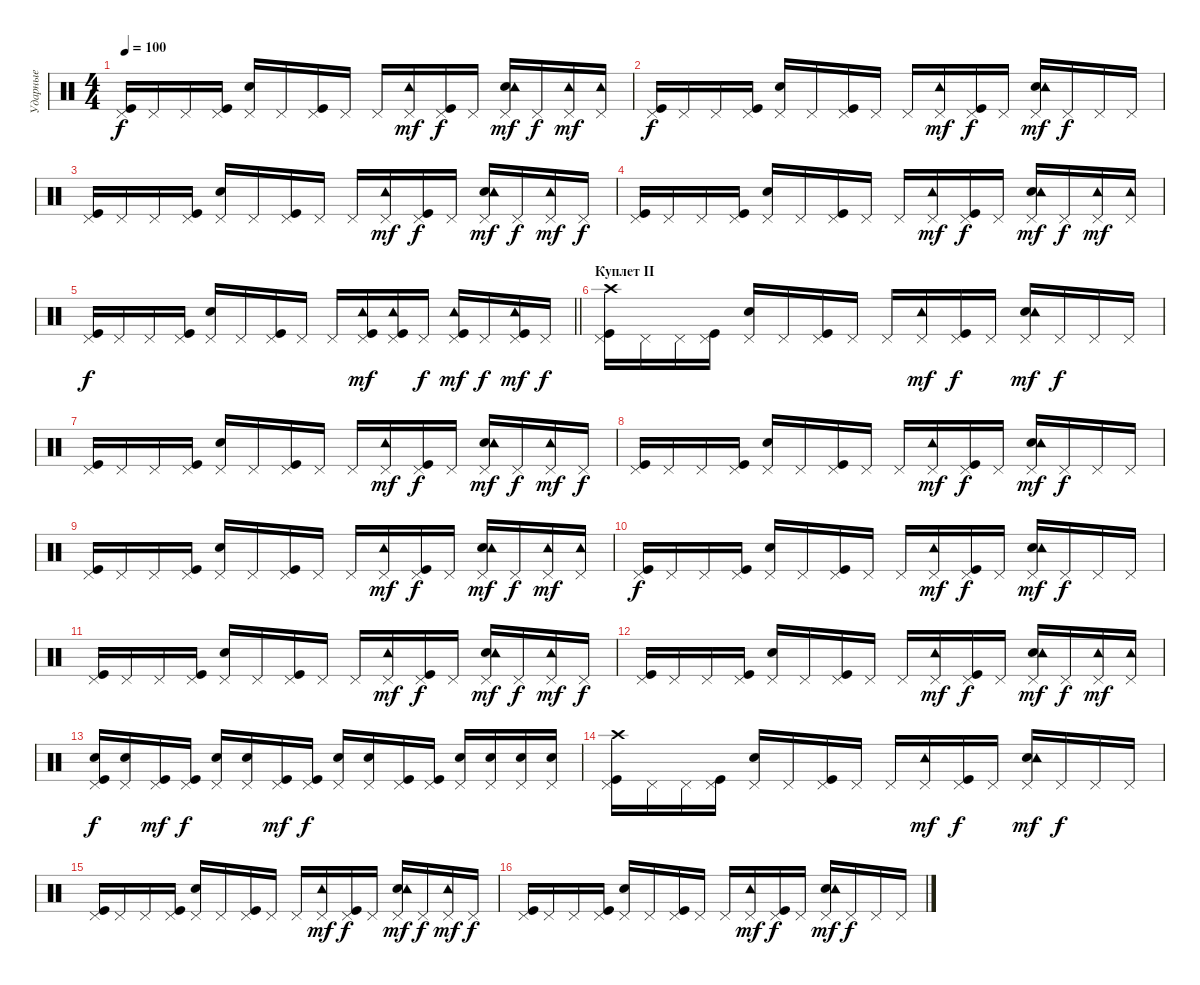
\track ("Ударные" "Ударные") {instrument percussion}
\staff {score}
\articulation defaults
\ts (4 4)
\tempo 100
\clef neutral
\ks c
("Kick (hit)" "Pedal Hi-Hat (hit)").16{dy f} "Pedal Hi-Hat (hit)".16 "Pedal Hi-Hat (hit)".16 ("Kick (hit)" "Pedal Hi-Hat (hit)").16 ("Pedal Hi-Hat (hit)" "Electric Snare (hit)").16 "Pedal Hi-Hat (hit)".16 ("Kick (hit)" "Pedal Hi-Hat (hit)").16 "Pedal Hi-Hat (hit)".16 "Pedal Hi-Hat (hit)".16 ("Pedal Hi-Hat (hit)" "Tambourine (hit)").16{dy mf} ("Kick (hit)" "Pedal Hi-Hat (hit)").16{dy f} "Pedal Hi-Hat (hit)".16 ("Pedal Hi-Hat (hit)" "Electric Snare (hit)" "Tambourine (hit)").16{dy mf} "Pedal Hi-Hat (hit)".16{dy f} ("Pedal Hi-Hat (hit)" "Tambourine (hit)").16{dy mf} ("Pedal Hi-Hat (hit)" "Tambourine (hit)").16 |
("Kick (hit)" "Pedal Hi-Hat (hit)").16{dy f} "Pedal Hi-Hat (hit)".16 "Pedal Hi-Hat (hit)".16 ("Kick (hit)" "Pedal Hi-Hat (hit)").16 ("Pedal Hi-Hat (hit)" "Electric Snare (hit)").16 "Pedal Hi-Hat (hit)".16 ("Kick (hit)" "Pedal Hi-Hat (hit)").16 "Pedal Hi-Hat (hit)".16 "Pedal Hi-Hat (hit)".16 ("Pedal Hi-Hat (hit)" "Tambourine (hit)").16{dy mf} ("Kick (hit)" "Pedal Hi-Hat (hit)").16{dy f} "Pedal Hi-Hat (hit)".16 ("Pedal Hi-Hat (hit)" "Electric Snare (hit)" "Tambourine (hit)").16{dy mf} "Pedal Hi-Hat (hit)".16{dy f} "Pedal Hi-Hat (hit)".16 "Pedal Hi-Hat (hit)".16 |
("Kick (hit)" "Pedal Hi-Hat (hit)").16 "Pedal Hi-Hat (hit)".16 "Pedal Hi-Hat (hit)".16 ("Kick (hit)" "Pedal Hi-Hat (hit)").16 ("Pedal Hi-Hat (hit)" "Electric Snare (hit)").16 "Pedal Hi-Hat (hit)".16 ("Kick (hit)" "Pedal Hi-Hat (hit)").16 "Pedal Hi-Hat (hit)".16 "Pedal Hi-Hat (hit)".16 ("Pedal Hi-Hat (hit)" "Tambourine (hit)").16{dy mf} ("Kick (hit)" "Pedal Hi-Hat (hit)").16{dy f} "Pedal Hi-Hat (hit)".16 ("Pedal Hi-Hat (hit)" "Electric Snare (hit)" "Tambourine (hit)").16{dy mf} "Pedal Hi-Hat (hit)".16{dy f} ("Pedal Hi-Hat (hit)" "Tambourine (hit)").16{dy mf} "Pedal Hi-Hat (hit)".16{dy f} |
("Kick (hit)" "Pedal Hi-Hat (hit)").16 "Pedal Hi-Hat (hit)".16 "Pedal Hi-Hat (hit)".16 ("Kick (hit)" "Pedal Hi-Hat (hit)").16 ("Pedal Hi-Hat (hit)" "Electric Snare (hit)").16 "Pedal Hi-Hat (hit)".16 ("Kick (hit)" "Pedal Hi-Hat (hit)").16 "Pedal Hi-Hat (hit)".16 "Pedal Hi-Hat (hit)".16 ("Pedal Hi-Hat (hit)" "Tambourine (hit)").16{dy mf} ("Kick (hit)" "Pedal Hi-Hat (hit)").16{dy f} "Pedal Hi-Hat (hit)".16 ("Pedal Hi-Hat (hit)" "Electric Snare (hit)" "Tambourine (hit)").16{dy mf} "Pedal Hi-Hat (hit)".16{dy f} ("Pedal Hi-Hat (hit)" "Tambourine (hit)").16{dy mf} ("Pedal Hi-Hat (hit)" "Tambourine (hit)").16 |
\barLineRight lightlight
("Kick (hit)" "Pedal Hi-Hat (hit)").16{dy f} "Pedal Hi-Hat (hit)".16 "Pedal Hi-Hat (hit)".16 ("Kick (hit)" "Pedal Hi-Hat (hit)").16 ("Pedal Hi-Hat (hit)" "Electric Snare (hit)").16 "Pedal Hi-Hat (hit)".16 ("Kick (hit)" "Pedal Hi-Hat (hit)").16 "Pedal Hi-Hat (hit)".16 "Pedal Hi-Hat (hit)".16 ("Kick (hit)" "Pedal Hi-Hat (hit)" "Tambourine (hit)").16{dy mf} ("Kick (hit)" "Pedal Hi-Hat (hit)" "Tambourine (hit)").16 "Pedal Hi-Hat (hit)".16{dy f} ("Kick (hit)" "Pedal Hi-Hat (hit)" "Tambourine (hit)").16{dy mf} "Pedal Hi-Hat (hit)".16{dy f} ("Kick (hit)" "Pedal Hi-Hat (hit)" "Tambourine (hit)").16{dy mf} "Pedal Hi-Hat (hit)".16{dy f} |
\section ("" "Куплет II")
("Kick (hit)" "Pedal Hi-Hat (hit)" "Crash high (hit)").16 "Pedal Hi-Hat (hit)".16 "Pedal Hi-Hat (hit)".16 ("Kick (hit)" "Pedal Hi-Hat (hit)").16 ("Pedal Hi-Hat (hit)" "Electric Snare (hit)").16 "Pedal Hi-Hat (hit)".16 ("Kick (hit)" "Pedal Hi-Hat (hit)").16 "Pedal Hi-Hat (hit)".16 "Pedal Hi-Hat (hit)".16 ("Pedal Hi-Hat (hit)" "Tambourine (hit)").16{dy mf} ("Kick (hit)" "Pedal Hi-Hat (hit)").16{dy f} "Pedal Hi-Hat (hit)".16 ("Pedal Hi-Hat (hit)" "Electric Snare (hit)" "Tambourine (hit)").16{dy mf} "Pedal Hi-Hat (hit)".16{dy f} "Pedal Hi-Hat (hit)".16 "Pedal Hi-Hat (hit)".16 |
("Kick (hit)" "Pedal Hi-Hat (hit)").16 "Pedal Hi-Hat (hit)".16 "Pedal Hi-Hat (hit)".16 ("Kick (hit)" "Pedal Hi-Hat (hit)").16 ("Pedal Hi-Hat (hit)" "Electric Snare (hit)").16 "Pedal Hi-Hat (hit)".16 ("Kick (hit)" "Pedal Hi-Hat (hit)").16 "Pedal Hi-Hat (hit)".16 "Pedal Hi-Hat (hit)".16 ("Pedal Hi-Hat (hit)" "Tambourine (hit)").16{dy mf} ("Kick (hit)" "Pedal Hi-Hat (hit)").16{dy f} "Pedal Hi-Hat (hit)".16 ("Pedal Hi-Hat (hit)" "Electric Snare (hit)" "Tambourine (hit)").16{dy mf} "Pedal Hi-Hat (hit)".16{dy f} ("Pedal Hi-Hat (hit)" "Tambourine (hit)").16{dy mf} "Pedal Hi-Hat (hit)".16{dy f} |
("Kick (hit)" "Pedal Hi-Hat (hit)").16 "Pedal Hi-Hat (hit)".16 "Pedal Hi-Hat (hit)".16 ("Kick (hit)" "Pedal Hi-Hat (hit)").16 ("Pedal Hi-Hat (hit)" "Electric Snare (hit)").16 "Pedal Hi-Hat (hit)".16 ("Kick (hit)" "Pedal Hi-Hat (hit)").16 "Pedal Hi-Hat (hit)".16 "Pedal Hi-Hat (hit)".16 ("Pedal Hi-Hat (hit)" "Tambourine (hit)").16{dy mf} ("Kick (hit)" "Pedal Hi-Hat (hit)").16{dy f} "Pedal Hi-Hat (hit)".16 ("Pedal Hi-Hat (hit)" "Electric Snare (hit)" "Tambourine (hit)").16{dy mf} "Pedal Hi-Hat (hit)".16{dy f} "Pedal Hi-Hat (hit)".16 "Pedal Hi-Hat (hit)".16 |
("Kick (hit)" "Pedal Hi-Hat (hit)").16 "Pedal Hi-Hat (hit)".16 "Pedal Hi-Hat (hit)".16 ("Kick (hit)" "Pedal Hi-Hat (hit)").16 ("Pedal Hi-Hat (hit)" "Electric Snare (hit)").16 "Pedal Hi-Hat (hit)".16 ("Kick (hit)" "Pedal Hi-Hat (hit)").16 "Pedal Hi-Hat (hit)".16 "Pedal Hi-Hat (hit)".16 ("Pedal Hi-Hat (hit)" "Tambourine (hit)").16{dy mf} ("Kick (hit)" "Pedal Hi-Hat (hit)").16{dy f} "Pedal Hi-Hat (hit)".16 ("Pedal Hi-Hat (hit)" "Electric Snare (hit)" "Tambourine (hit)").16{dy mf} "Pedal Hi-Hat (hit)".16{dy f} ("Pedal Hi-Hat (hit)" "Tambourine (hit)").16{dy mf} ("Pedal Hi-Hat (hit)" "Tambourine (hit)").16 |
("Kick (hit)" "Pedal Hi-Hat (hit)").16{dy f} "Pedal Hi-Hat (hit)".16 "Pedal Hi-Hat (hit)".16 ("Kick (hit)" "Pedal Hi-Hat (hit)").16 ("Pedal Hi-Hat (hit)" "Electric Snare (hit)").16 "Pedal Hi-Hat (hit)".16 ("Kick (hit)" "Pedal Hi-Hat (hit)").16 "Pedal Hi-Hat (hit)".16 "Pedal Hi-Hat (hit)".16 ("Pedal Hi-Hat (hit)" "Tambourine (hit)").16{dy mf} ("Kick (hit)" "Pedal Hi-Hat (hit)").16{dy f} "Pedal Hi-Hat (hit)".16 ("Pedal Hi-Hat (hit)" "Electric Snare (hit)" "Tambourine (hit)").16{dy mf} "Pedal Hi-Hat (hit)".16{dy f} "Pedal Hi-Hat (hit)".16 "Pedal Hi-Hat (hit)".16 |
("Kick (hit)" "Pedal Hi-Hat (hit)").16 "Pedal Hi-Hat (hit)".16 "Pedal Hi-Hat (hit)".16 ("Kick (hit)" "Pedal Hi-Hat (hit)").16 ("Pedal Hi-Hat (hit)" "Electric Snare (hit)").16 "Pedal Hi-Hat (hit)".16 ("Kick (hit)" "Pedal Hi-Hat (hit)").16 "Pedal Hi-Hat (hit)".16 "Pedal Hi-Hat (hit)".16 ("Pedal Hi-Hat (hit)" "Tambourine (hit)").16{dy mf} ("Kick (hit)" "Pedal Hi-Hat (hit)").16{dy f} "Pedal Hi-Hat (hit)".16 ("Pedal Hi-Hat (hit)" "Electric Snare (hit)" "Tambourine (hit)").16{dy mf} "Pedal Hi-Hat (hit)".16{dy f} ("Pedal Hi-Hat (hit)" "Tambourine (hit)").16{dy mf} "Pedal Hi-Hat (hit)".16{dy f} |
("Kick (hit)" "Pedal Hi-Hat (hit)").16 "Pedal Hi-Hat (hit)".16 "Pedal Hi-Hat (hit)".16 ("Kick (hit)" "Pedal Hi-Hat (hit)").16 ("Pedal Hi-Hat (hit)" "Electric Snare (hit)").16 "Pedal Hi-Hat (hit)".16 ("Kick (hit)" "Pedal Hi-Hat (hit)").16 "Pedal Hi-Hat (hit)".16 "Pedal Hi-Hat (hit)".16 ("Pedal Hi-Hat (hit)" "Tambourine (hit)").16{dy mf} ("Kick (hit)" "Pedal Hi-Hat (hit)").16{dy f} "Pedal Hi-Hat (hit)".16 ("Pedal Hi-Hat (hit)" "Electric Snare (hit)" "Tambourine (hit)").16{dy mf} "Pedal Hi-Hat (hit)".16{dy f} ("Pedal Hi-Hat (hit)" "Tambourine (hit)").16{dy mf} ("Pedal Hi-Hat (hit)" "Tambourine (hit)").16 |
("Kick (hit)" "Pedal Hi-Hat (hit)" "Electric Snare (hit)").16{dy f} ("Pedal Hi-Hat (hit)" "Electric Snare (hit)").16 ("Kick (hit)" "Pedal Hi-Hat (hit)").16{dy mf} ("Kick (hit)" "Pedal Hi-Hat (hit)").16{dy f} ("Pedal Hi-Hat (hit)" "Electric Snare (hit)").16 ("Electric Snare (hit)" "Pedal Hi-Hat (hit)").16 ("Kick (hit)" "Pedal Hi-Hat (hit)").16{dy mf} ("Kick (hit)" "Pedal Hi-Hat (hit)").16{dy f} ("Electric Snare (hit)" "Pedal Hi-Hat (hit)").16 ("Electric Snare (hit)" "Pedal Hi-Hat (hit)").16 ("Pedal Hi-Hat (hit)" "Kick (hit)").16 ("Pedal Hi-Hat (hit)" "Kick (hit)").16 ("Electric Snare (hit)" "Pedal Hi-Hat (hit)").16 ("Electric Snare (hit)" "Pedal Hi-Hat (hit)").16 ("Electric Snare (hit)" "Pedal Hi-Hat (hit)").16 ("Electric Snare (hit)" "Pedal Hi-Hat (hit)").16 |
("Kick (hit)" "Pedal Hi-Hat (hit)" "Crash high (hit)").16 "Pedal Hi-Hat (hit)".16 "Pedal Hi-Hat (hit)".16 ("Kick (hit)" "Pedal Hi-Hat (hit)").16 ("Pedal Hi-Hat (hit)" "Electric Snare (hit)").16 "Pedal Hi-Hat (hit)".16 ("Kick (hit)" "Pedal Hi-Hat (hit)").16 "Pedal Hi-Hat (hit)".16 "Pedal Hi-Hat (hit)".16 ("Pedal Hi-Hat (hit)" "Tambourine (hit)").16{dy mf} ("Kick (hit)" "Pedal Hi-Hat (hit)").16{dy f} "Pedal Hi-Hat (hit)".16 ("Pedal Hi-Hat (hit)" "Electric Snare (hit)" "Tambourine (hit)").16{dy mf} "Pedal Hi-Hat (hit)".16{dy f} "Pedal Hi-Hat (hit)".16 "Pedal Hi-Hat (hit)".16 |
("Kick (hit)" "Pedal Hi-Hat (hit)").16 "Pedal Hi-Hat (hit)".16 "Pedal Hi-Hat (hit)".16 ("Kick (hit)" "Pedal Hi-Hat (hit)").16 ("Pedal Hi-Hat (hit)" "Electric Snare (hit)").16 "Pedal Hi-Hat (hit)".16 ("Kick (hit)" "Pedal Hi-Hat (hit)").16 "Pedal Hi-Hat (hit)".16 "Pedal Hi-Hat (hit)".16 ("Pedal Hi-Hat (hit)" "Tambourine (hit)").16{dy mf} ("Kick (hit)" "Pedal Hi-Hat (hit)").16{dy f} "Pedal Hi-Hat (hit)".16 ("Pedal Hi-Hat (hit)" "Electric Snare (hit)" "Tambourine (hit)").16{dy mf} "Pedal Hi-Hat (hit)".16{dy f} ("Pedal Hi-Hat (hit)" "Tambourine (hit)").16{dy mf} "Pedal Hi-Hat (hit)".16{dy f} |
("Kick (hit)" "Pedal Hi-Hat (hit)").16 "Pedal Hi-Hat (hit)".16 "Pedal Hi-Hat (hit)".16 ("Kick (hit)" "Pedal Hi-Hat (hit)").16 ("Pedal Hi-Hat (hit)" "Electric Snare (hit)").16 "Pedal Hi-Hat (hit)".16 ("Kick (hit)" "Pedal Hi-Hat (hit)").16 "Pedal Hi-Hat (hit)".16 "Pedal Hi-Hat (hit)".16 ("Pedal Hi-Hat (hit)" "Tambourine (hit)").16{dy mf} ("Kick (hit)" "Pedal Hi-Hat (hit)").16{dy f} "Pedal Hi-Hat (hit)".16 ("Pedal Hi-Hat (hit)" "Electric Snare (hit)" "Tambourine (hit)").16{dy mf} "Pedal Hi-Hat (hit)".16{dy f} "Pedal Hi-Hat (hit)".16 "Pedal Hi-Hat (hit)".16
